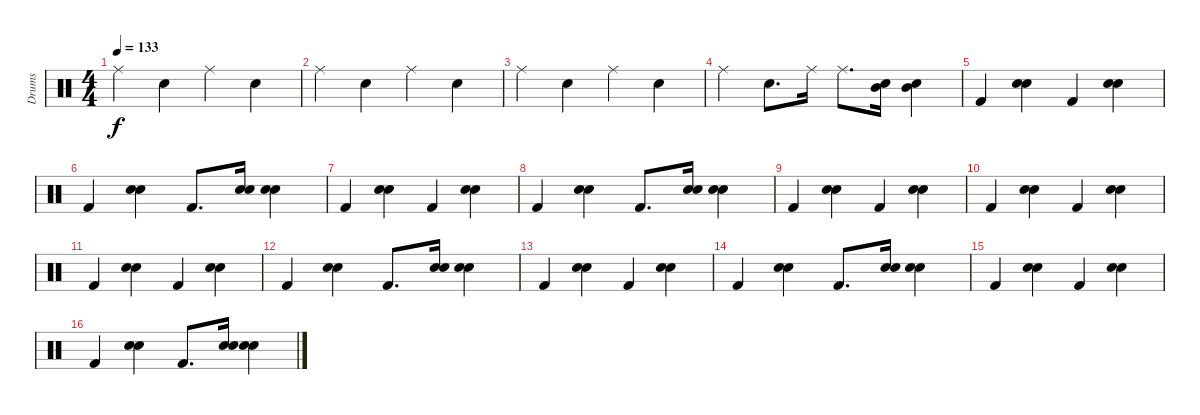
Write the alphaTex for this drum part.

\track ("Drums" "Drums") {instrument percussion}
\staff {score}
\articulation defaults
\ts (4 4)
\tempo 133
\clef neutral
\ks c "Ride (middle)".4{dy f} "Hand Clap (hit)".4 "Ride (middle)".4 "Hand Clap (hit)".4
|
"Ride (middle)".4 "Hand Clap (hit)".4 "Ride (middle)".4 "Hand Clap (hit)".4 |
"Ride (middle)".4 "Hand Clap (hit)".4 "Ride (middle)".4 "Hand Clap (hit)".4 |
"Ride (middle)".4 "Hand Clap (hit)".8{d} "Ride (middle)".16 "Ride (middle)".8{d} ("Mid Tom (hit)" "Hand Clap (hit)").16 ("Mid Tom (hit)" "Hand Clap (hit)").4 |
"Kick (hit) 2".4 ("Electric Snare (hit)" "Hand Clap (hit)").4 "Kick (hit) 2".4 ("Electric Snare (hit)" "Hand Clap (hit)").4 |
"Kick (hit) 2".4 ("Electric Snare (hit)" "Hand Clap (hit)").4 "Kick (hit) 2".8{d} ("Electric Snare (hit)" "Hand Clap (hit)").16 ("Electric Snare (hit)" "Hand Clap (hit)").4 |
"Kick (hit) 2".4 ("Electric Snare (hit)" "Hand Clap (hit)").4 "Kick (hit) 2".4 ("Electric Snare (hit)" "Hand Clap (hit)").4 |
"Kick (hit) 2".4 ("Electric Snare (hit)" "Hand Clap (hit)").4 "Kick (hit) 2".8{d} ("Electric Snare (hit)" "Hand Clap (hit)").16 ("Electric Snare (hit)" "Hand Clap (hit)").4 |
"Kick (hit) 2".4 ("Electric Snare (hit)" "Hand Clap (hit)").4 "Kick (hit) 2".4 ("Electric Snare (hit)" "Hand Clap (hit)").4 |
"Kick (hit) 2".4 ("Electric Snare (hit)" "Hand Clap (hit)").4 "Kick (hit) 2".4 ("Electric Snare (hit)" "Hand Clap (hit)").4 |
"Kick (hit) 2".4 ("Electric Snare (hit)" "Hand Clap (hit)").4 "Kick (hit) 2".4 ("Electric Snare (hit)" "Hand Clap (hit)").4 |
"Kick (hit) 2".4 ("Electric Snare (hit)" "Hand Clap (hit)").4 "Kick (hit) 2".8{d} ("Electric Snare (hit)" "Hand Clap (hit)").16 ("Electric Snare (hit)" "Hand Clap (hit)").4 |
"Kick (hit) 2".4 ("Electric Snare (hit)" "Hand Clap (hit)").4 "Kick (hit) 2".4 ("Electric Snare (hit)" "Hand Clap (hit)").4 |
"Kick (hit) 2".4 ("Electric Snare (hit)" "Hand Clap (hit)").4 "Kick (hit) 2".8{d} ("Electric Snare (hit)" "Hand Clap (hit)").16 ("Electric Snare (hit)" "Hand Clap (hit)").4 |
"Kick (hit) 2".4 ("Electric Snare (hit)" "Hand Clap (hit)").4 "Kick (hit) 2".4 ("Electric Snare (hit)" "Hand Clap (hit)").4 |
"Kick (hit) 2".4 ("Electric Snare (hit)" "Hand Clap (hit)").4 "Kick (hit) 2".8{d} ("Electric Snare (hit)" "Hand Clap (hit)").16 ("Electric Snare (hit)" "Hand Clap (hit)").4
